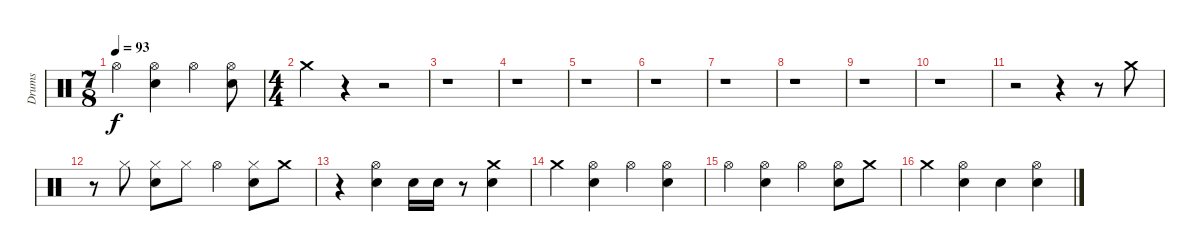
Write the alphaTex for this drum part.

\track ("Drums" "Drums") {instrument percussion}
\staff {score}
\articulation defaults
\ts (7 8)
\tempo 93
\clef neutral
\ks c "Hi-Hat (open)".4{dy f}
("Hi-Hat (open)" "Electric Snare (hit)").4 "Hi-Hat (open)".4 ("Hi-Hat (open)" "Electric Snare (hit)").8 |
\ts (4 4)
"Crash medium (hit)".4 r.4 r.2 |
r.1 |
r.1 |
r.1 |
r.1 |
r.1 |
r.1 |
r.1 |
r.1 |
r.2 r.4 r.8 "Crash medium (hit)".8 |
r.8 "Hi-Hat (closed)".8 ("Hi-Hat (closed)" "Electric Snare (hit)").8 "Hi-Hat (closed)".8 "Hi-Hat (open)".4 ("Hi-Hat (closed)" "Electric Snare (hit)").8 "Crash medium (hit)".8 |
r.4 ("Electric Snare (hit)" "Hi-Hat (open)").4 "Electric Snare (hit)".16 "Electric Snare (hit)".16 r.8 ("Electric Snare (hit)" "Crash medium (hit)").4 |
"Crash medium (hit)".4 ("Hi-Hat (open)" "Electric Snare (hit)").4 "Hi-Hat (open)".4 ("Hi-Hat (open)" "Electric Snare (hit)").4 |
"Hi-Hat (open)".4 ("Hi-Hat (open)" "Electric Snare (hit)").4 "Hi-Hat (open)".4 ("Hi-Hat (open)" "Electric Snare (hit)").8 "Crash medium (hit)".8 |
"Crash medium (hit)".4 ("Hi-Hat (open)" "Electric Snare (hit)").4 "Snare (hit)".4 ("Hi-Hat (open)" "Electric Snare (hit)").4
